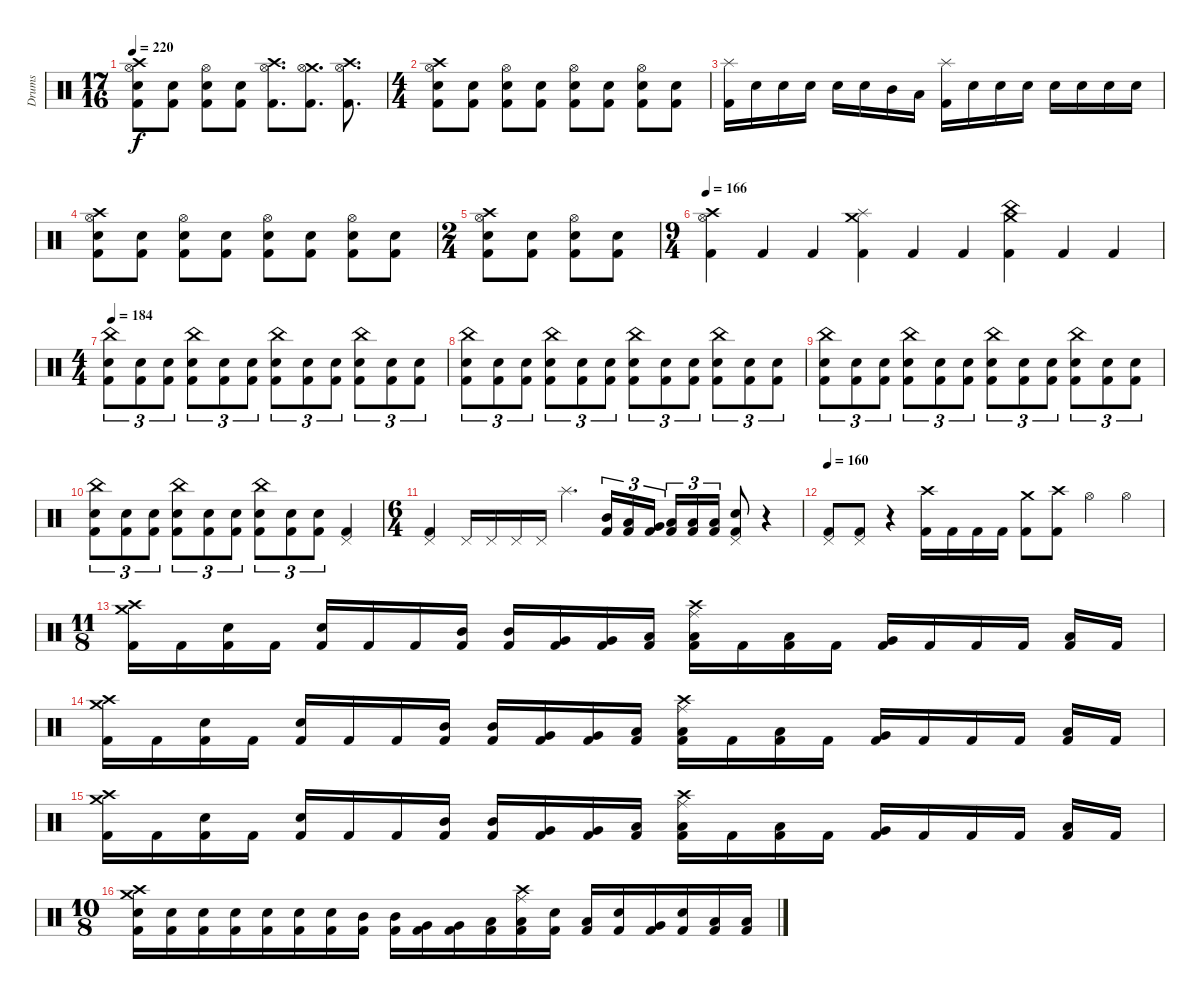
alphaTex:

\track ("Drums" "Drums") {instrument percussion}
\staff {score}
\articulation defaults
\ts (17 16)
\tempo 220
\clef neutral
\ks c
("Crash high (hit)" "Hi-Hat (open)" "Snare (hit) 2" "Kick (hit) 2").8{dy f} ("Snare (hit) 2" "Kick (hit) 2").8 ("Hi-Hat (open)" "Snare (hit) 2" "Kick (hit) 2").8 ("Snare (hit) 2" "Kick (hit) 2").8 ("Crash high (hit)" "Hi-Hat (open)" "Kick (hit) 2").8{d} ("Crash medium (hit)" "Hi-Hat (open)" "Kick (hit) 2").8{d} ("Crash high (hit)" "Hi-Hat (open)" "Kick (hit) 2").8{d} |
\ts (4 4)
("Crash high (hit)" "Hi-Hat (open)" "Snare (hit) 2" "Kick (hit) 2").8 ("Snare (hit) 2" "Kick (hit) 2").8 ("Hi-Hat (open)" "Snare (hit) 2" "Kick (hit) 2").8 ("Snare (hit) 2" "Kick (hit) 2").8 ("Hi-Hat (open)" "Snare (hit) 2" "Kick (hit) 2").8 ("Snare (hit) 2" "Kick (hit) 2").8 ("Hi-Hat (open)" "Snare (hit) 2" "Kick (hit) 2").8 ("Snare (hit) 2" "Kick (hit) 2").8 |
("Splash (hit)" "Kick (hit) 2").16 "Snare (hit) 2".16 "Snare (hit) 2".16 "Snare (hit) 2".16 "Snare (hit) 2".16 "Snare (hit) 2".16 "Mid Tom (hit)".16 "Low Tom (hit)".16 ("Splash (hit)" "Kick (hit) 2").16 "Snare (hit) 2".16 "Snare (hit) 2".16 "Snare (hit) 2".16 "Snare (hit) 2".16 "Snare (hit) 2".16 "Snare (hit) 2".16 "Snare (hit) 2".16 |
("Crash high (hit)" "Hi-Hat (open)" "Snare (hit) 2" "Kick (hit) 2").8 ("Snare (hit) 2" "Kick (hit) 2").8 ("Hi-Hat (open)" "Snare (hit) 2" "Kick (hit) 2").8 ("Snare (hit) 2" "Kick (hit) 2").8 ("Hi-Hat (open)" "Snare (hit) 2" "Kick (hit) 2").8 ("Snare (hit) 2" "Kick (hit) 2").8 ("Hi-Hat (open)" "Snare (hit) 2" "Kick (hit) 2").8 ("Snare (hit) 2" "Kick (hit) 2").8 |
\ts (2 4)
("Crash high (hit)" "Hi-Hat (open)" "Snare (hit) 2" "Kick (hit) 2").8 ("Snare (hit) 2" "Kick (hit) 2").8 ("Hi-Hat (open)" "Snare (hit) 2" "Kick (hit) 2").8 ("Snare (hit) 2" "Kick (hit) 2").8 |
\ts (9 4)
\tempo 166
("Hi-Hat (open)" "Crash high (hit)" "Kick (hit) 2").4 "Kick (hit) 2".4 "Kick (hit) 2".4 ("Splash (hit)" "Crash medium (hit)" "Kick (hit) 2").4 "Kick (hit) 2".4 "Kick (hit) 2".4 ("Crash medium (hit)" "China (hit)" "Kick (hit) 2").4 "Kick (hit) 2".4 "Kick (hit) 2".4 |
\ts (4 4)
\tempo 184
("China (hit)" "Snare (hit) 2" "Kick (hit) 2").8{tu (3 2)} ("Snare (hit) 2" "Kick (hit) 2").8{tu (3 2)} ("Snare (hit) 2" "Kick (hit) 2").8{tu (3 2)} ("China (hit)" "Snare (hit) 2" "Kick (hit) 2").8{tu (3 2)} ("Snare (hit) 2" "Kick (hit) 2").8{tu (3 2)} ("Snare (hit) 2" "Kick (hit) 2").8{tu (3 2)} ("China (hit)" "Snare (hit) 2" "Kick (hit) 2").8{tu (3 2)} ("Snare (hit) 2" "Kick (hit) 2").8{tu (3 2)} ("Snare (hit) 2" "Kick (hit) 2").8{tu (3 2)} ("China (hit)" "Snare (hit) 2" "Kick (hit) 2").8{tu (3 2)} ("Snare (hit) 2" "Kick (hit) 2").8{tu (3 2)} ("Snare (hit) 2" "Kick (hit) 2").8{tu (3 2)} |
("China (hit)" "Snare (hit) 2" "Kick (hit) 2").8{tu (3 2)} ("Snare (hit) 2" "Kick (hit) 2").8{tu (3 2)} ("Snare (hit) 2" "Kick (hit) 2").8{tu (3 2)} ("China (hit)" "Snare (hit) 2" "Kick (hit) 2").8{tu (3 2)} ("Snare (hit) 2" "Kick (hit) 2").8{tu (3 2)} ("Snare (hit) 2" "Kick (hit) 2").8{tu (3 2)} ("China (hit)" "Snare (hit) 2" "Kick (hit) 2").8{tu (3 2)} ("Snare (hit) 2" "Kick (hit) 2").8{tu (3 2)} ("Snare (hit) 2" "Kick (hit) 2").8{tu (3 2)} ("China (hit)" "Snare (hit) 2" "Kick (hit) 2").8{tu (3 2)} ("Snare (hit) 2" "Kick (hit) 2").8{tu (3 2)} ("Snare (hit) 2" "Kick (hit) 2").8{tu (3 2)} |
("China (hit)" "Snare (hit) 2" "Kick (hit) 2").8{tu (3 2)} ("Snare (hit) 2" "Kick (hit) 2").8{tu (3 2)} ("Snare (hit) 2" "Kick (hit) 2").8{tu (3 2)} ("China (hit)" "Snare (hit) 2" "Kick (hit) 2").8{tu (3 2)} ("Snare (hit) 2" "Kick (hit) 2").8{tu (3 2)} ("Snare (hit) 2" "Kick (hit) 2").8{tu (3 2)} ("China (hit)" "Snare (hit) 2" "Kick (hit) 2").8{tu (3 2)} ("Snare (hit) 2" "Kick (hit) 2").8{tu (3 2)} ("Snare (hit) 2" "Kick (hit) 2").8{tu (3 2)} ("China (hit)" "Snare (hit) 2" "Kick (hit) 2").8{tu (3 2)} ("Snare (hit) 2" "Kick (hit) 2").8{tu (3 2)} ("Snare (hit) 2" "Kick (hit) 2").8{tu (3 2)} |
("China (hit)" "Snare (hit) 2" "Kick (hit) 2").8{tu (3 2)} ("Snare (hit) 2" "Kick (hit) 2").8{tu (3 2)} ("Snare (hit) 2" "Kick (hit) 2").8{tu (3 2)} ("China (hit)" "Snare (hit) 2" "Kick (hit) 2").8{tu (3 2)} ("Snare (hit) 2" "Kick (hit) 2").8{tu (3 2)} ("Snare (hit) 2" "Kick (hit) 2").8{tu (3 2)} ("China (hit)" "Snare (hit) 2" "Kick (hit) 2").8{tu (3 2)} ("Snare (hit) 2" "Kick (hit) 2").8{tu (3 2)} ("Snare (hit) 2" "Kick (hit) 2").8{tu (3 2)} ("Pedal Hi-Hat (hit)" "Kick (hit) 2").4 |
\ts (6 4)
("Pedal Hi-Hat (hit)" "Kick (hit) 2").4 "Pedal Hi-Hat (hit)".16 "Pedal Hi-Hat (hit)".16 "Pedal Hi-Hat (hit)".16 "Pedal Hi-Hat (hit)".16 "Splash (hit)".4{d} ("Mid Tom (hit)" "Kick (hit) 2").16{tu (3 2)} ("Low Tom (hit)" "Kick (hit) 2").16{tu (3 2)} ("Very Low Tom (hit)" "Kick (hit) 2").16{tu (3 2) beam splitsecondary} ("Low Floor Tom (hit)" "Kick (hit) 2").16{tu (3 2)} ("Low Floor Tom (hit)" "Kick (hit) 2").16{tu (3 2)} ("Low Floor Tom (hit)" "Kick (hit) 2").16{tu (3 2)} ("Pedal Hi-Hat (hit)" "Snare (hit) 2" "Kick (hit) 2").8 r.4 |
\tempo 160
("Pedal Hi-Hat (hit)" "Kick (hit) 2").8 ("Pedal Hi-Hat (hit)" "Kick (hit) 2").8 r.4 ("Crash high (hit)" "Kick (hit) 2").16 "Kick (hit) 2".16 "Kick (hit) 2".16 "Kick (hit) 2".16 ("Crash medium (hit)" "Kick (hit) 2").8 ("Crash high (hit)" "Kick (hit) 2").8 "Hi-Hat (open)".4 "Hi-Hat (open)".4 |
\ts (11 8)
("Crash high (hit)" "Crash medium (hit)" "Kick (hit) 2").16 "Kick (hit) 2".16 ("Snare (hit) 2" "Kick (hit) 2").16 "Kick (hit) 2".16 ("Snare (hit) 2" "Kick (hit) 2").16 "Kick (hit) 2".16 "Kick (hit) 2".16 ("Mid Tom (hit)" "Kick (hit) 2").16 ("Mid Tom (hit)" "Kick (hit) 2").16 ("Very Low Tom (hit)" "Kick (hit) 2").16 ("Very Low Tom (hit)" "Kick (hit) 2").16 ("Low Floor Tom (hit)" "Kick (hit) 2").16 ("Crash high (hit)" "Ride (middle)" "Low Floor Tom (hit)" "Kick (hit) 2").16 "Kick (hit) 2".16 ("Low Tom (hit)" "Kick (hit) 2").16 "Kick (hit) 2".16 ("Very Low Tom (hit)" "Kick (hit) 2").16 "Kick (hit) 2".16 "Kick (hit) 2".16 "Kick (hit) 2".16 ("Low Floor Tom (hit)" "Kick (hit) 2").16 "Kick (hit) 2".16 |
("Crash high (hit)" "Crash medium (hit)" "Kick (hit) 2").16 "Kick (hit) 2".16 ("Snare (hit) 2" "Kick (hit) 2").16 "Kick (hit) 2".16 ("Snare (hit) 2" "Kick (hit) 2").16 "Kick (hit) 2".16 "Kick (hit) 2".16 ("Mid Tom (hit)" "Kick (hit) 2").16 ("Mid Tom (hit)" "Kick (hit) 2").16 ("Very Low Tom (hit)" "Kick (hit) 2").16 ("Very Low Tom (hit)" "Kick (hit) 2").16 ("Low Floor Tom (hit)" "Kick (hit) 2").16 ("Crash high (hit)" "Ride (middle)" "Low Floor Tom (hit)" "Kick (hit) 2").16 "Kick (hit) 2".16 ("Low Tom (hit)" "Kick (hit) 2").16 "Kick (hit) 2".16 ("Very Low Tom (hit)" "Kick (hit) 2").16 "Kick (hit) 2".16 "Kick (hit) 2".16 "Kick (hit) 2".16 ("Low Floor Tom (hit)" "Kick (hit) 2").16 "Kick (hit) 2".16 |
("Crash high (hit)" "Crash medium (hit)" "Kick (hit) 2").16 "Kick (hit) 2".16 ("Snare (hit) 2" "Kick (hit) 2").16 "Kick (hit) 2".16 ("Snare (hit) 2" "Kick (hit) 2").16 "Kick (hit) 2".16 "Kick (hit) 2".16 ("Mid Tom (hit)" "Kick (hit) 2").16 ("Mid Tom (hit)" "Kick (hit) 2").16 ("Very Low Tom (hit)" "Kick (hit) 2").16 ("Very Low Tom (hit)" "Kick (hit) 2").16 ("Low Floor Tom (hit)" "Kick (hit) 2").16 ("Crash high (hit)" "Ride (middle)" "Low Floor Tom (hit)" "Kick (hit) 2").16 "Kick (hit) 2".16 ("Low Tom (hit)" "Kick (hit) 2").16 "Kick (hit) 2".16 ("Very Low Tom (hit)" "Kick (hit) 2").16 "Kick (hit) 2".16 "Kick (hit) 2".16 "Kick (hit) 2".16 ("Low Floor Tom (hit)" "Kick (hit) 2").16 "Kick (hit) 2".16 |
\ts (10 8)
("Crash high (hit)" "Crash medium (hit)" "Snare (hit) 2" "Kick (hit) 2").16 ("Snare (hit) 2" "Kick (hit) 2").16 ("Snare (hit) 2" "Kick (hit) 2").16 ("Snare (hit) 2" "Kick (hit) 2").16 ("Snare (hit) 2" "Kick (hit) 2").16 ("Snare (hit) 2" "Kick (hit) 2").16 ("Snare (hit) 2" "Kick (hit) 2").16 ("Mid Tom (hit)" "Kick (hit) 2").16 ("Mid Tom (hit)" "Kick (hit) 2").16 ("Very Low Tom (hit)" "Kick (hit) 2").16 ("Very Low Tom (hit)" "Kick (hit) 2").16 ("Low Floor Tom (hit)" "Kick (hit) 2").16 ("Crash high (hit)" "Ride (middle)" "Low Floor Tom (hit)" "Kick (hit) 2").16 ("Snare (hit) 2" "Kick (hit) 2").16 ("Low Tom (hit)" "Kick (hit) 2").16 ("Snare (hit) 2" "Kick (hit) 2").16 ("Very Low Tom (hit)" "Kick (hit) 2").16 ("Snare (hit) 2" "Kick (hit) 2").16 ("Low Tom (hit)" "Kick (hit) 2").16 ("Low Tom (hit)" "Kick (hit) 2").16
